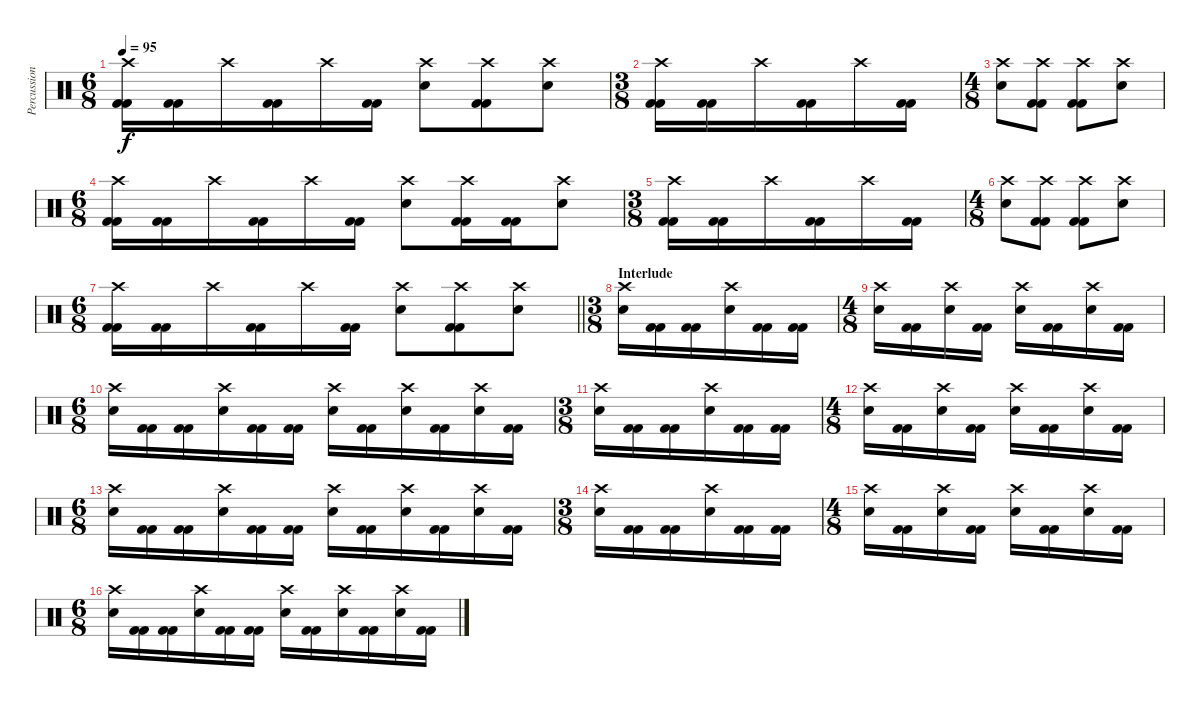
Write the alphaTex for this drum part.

\track ("Percussion" "Percussion") {instrument percussion}
\staff {score}
\articulation defaults
\ts (6 8)
\tempo 95
\clef neutral
\ks c
("Crash high (hit)" "Kick (hit) 2" "Kick (hit) 2").16{dy f} ("Kick (hit) 2" "Kick (hit) 2").16 "Crash high (hit)".16 ("Kick (hit) 2" "Kick (hit) 2").16 "Crash high (hit)".16 ("Kick (hit) 2" "Kick (hit) 2").16 ("Crash high (hit)" "Electric Snare (hit)").8 ("Crash high (hit)" "Kick (hit) 2" "Kick (hit) 2").8 ("Crash high (hit)" "Electric Snare (hit)").8 |
\ts (3 8)
("Crash high (hit)" "Kick (hit) 2" "Kick (hit) 2").16 ("Kick (hit) 2" "Kick (hit) 2").16 "Crash high (hit)".16 ("Kick (hit) 2" "Kick (hit) 2").16 "Crash high (hit)".16 ("Kick (hit) 2" "Kick (hit) 2").16 |
\ts (4 8)
("Crash high (hit)" "Electric Snare (hit)").8 ("Crash high (hit)" "Kick (hit) 2" "Kick (hit) 2").8 ("Crash high (hit)" "Kick (hit) 2" "Kick (hit) 2").8 ("Crash high (hit)" "Electric Snare (hit)").8 |
\ts (6 8)
("Crash high (hit)" "Kick (hit) 2" "Kick (hit) 2").16 ("Kick (hit) 2" "Kick (hit) 2").16 "Crash high (hit)".16 ("Kick (hit) 2" "Kick (hit) 2").16 "Crash high (hit)".16 ("Kick (hit) 2" "Kick (hit) 2").16 ("Crash high (hit)" "Electric Snare (hit)").8 ("Crash high (hit)" "Kick (hit) 2" "Kick (hit) 2").16 ("Kick (hit) 2" "Kick (hit) 2").16 ("Crash high (hit)" "Electric Snare (hit)").8 |
\ts (3 8)
("Crash high (hit)" "Kick (hit) 2" "Kick (hit) 2").16 ("Kick (hit) 2" "Kick (hit) 2").16 "Crash high (hit)".16 ("Kick (hit) 2" "Kick (hit) 2").16 "Crash high (hit)".16 ("Kick (hit) 2" "Kick (hit) 2").16 |
\ts (4 8)
("Crash high (hit)" "Electric Snare (hit)").8 ("Crash high (hit)" "Kick (hit) 2" "Kick (hit) 2").8 ("Crash high (hit)" "Kick (hit) 2" "Kick (hit) 2").8 ("Crash high (hit)" "Electric Snare (hit)").8 |
\ts (6 8)
\barLineRight lightlight
("Crash high (hit)" "Kick (hit) 2" "Kick (hit) 2").16 ("Kick (hit) 2" "Kick (hit) 2").16 "Crash high (hit)".16 ("Kick (hit) 2" "Kick (hit) 2").16 "Crash high (hit)".16 ("Kick (hit) 2" "Kick (hit) 2").16 ("Crash high (hit)" "Electric Snare (hit)").8 ("Crash high (hit)" "Kick (hit) 2" "Kick (hit) 2").8 ("Crash high (hit)" "Electric Snare (hit)").8 |
\ts (3 8)
\section ("" "Interlude")
("Crash high (hit)" "Electric Snare (hit)").16 ("Kick (hit) 2" "Kick (hit) 2").16 ("Kick (hit) 2" "Kick (hit) 2").16 ("Crash high (hit)" "Electric Snare (hit)").16 ("Kick (hit) 2" "Kick (hit) 2").16 ("Kick (hit) 2" "Kick (hit) 2").16 |
\ts (4 8)
("Crash high (hit)" "Electric Snare (hit)").16 ("Kick (hit) 2" "Kick (hit) 2").16 ("Crash high (hit)" "Electric Snare (hit)").16 ("Kick (hit) 2" "Kick (hit) 2").16 ("Crash high (hit)" "Electric Snare (hit)").16 ("Kick (hit) 2" "Kick (hit) 2").16 ("Crash high (hit)" "Electric Snare (hit)").16 ("Kick (hit) 2" "Kick (hit) 2").16 |
\ts (6 8)
("Crash high (hit)" "Electric Snare (hit)").16 ("Kick (hit) 2" "Kick (hit) 2").16 ("Kick (hit) 2" "Kick (hit) 2").16 ("Crash high (hit)" "Electric Snare (hit)").16 ("Kick (hit) 2" "Kick (hit) 2").16 ("Kick (hit) 2" "Kick (hit) 2").16 ("Crash high (hit)" "Electric Snare (hit)").16 ("Kick (hit) 2" "Kick (hit) 2").16 ("Crash high (hit)" "Electric Snare (hit)").16 ("Kick (hit) 2" "Kick (hit) 2").16 ("Crash high (hit)" "Electric Snare (hit)").16 ("Kick (hit) 2" "Kick (hit) 2").16 |
\ts (3 8)
("Crash high (hit)" "Electric Snare (hit)").16 ("Kick (hit) 2" "Kick (hit) 2").16 ("Kick (hit) 2" "Kick (hit) 2").16 ("Crash high (hit)" "Electric Snare (hit)").16 ("Kick (hit) 2" "Kick (hit) 2").16 ("Kick (hit) 2" "Kick (hit) 2").16 |
\ts (4 8)
("Crash high (hit)" "Electric Snare (hit)").16 ("Kick (hit) 2" "Kick (hit) 2").16 ("Crash high (hit)" "Electric Snare (hit)").16 ("Kick (hit) 2" "Kick (hit) 2").16 ("Crash high (hit)" "Electric Snare (hit)").16 ("Kick (hit) 2" "Kick (hit) 2").16 ("Crash high (hit)" "Electric Snare (hit)").16 ("Kick (hit) 2" "Kick (hit) 2").16 |
\ts (6 8)
("Crash high (hit)" "Electric Snare (hit)").16 ("Kick (hit) 2" "Kick (hit) 2").16 ("Kick (hit) 2" "Kick (hit) 2").16 ("Crash high (hit)" "Electric Snare (hit)").16 ("Kick (hit) 2" "Kick (hit) 2").16 ("Kick (hit) 2" "Kick (hit) 2").16 ("Crash high (hit)" "Electric Snare (hit)").16 ("Kick (hit) 2" "Kick (hit) 2").16 ("Crash high (hit)" "Electric Snare (hit)").16 ("Kick (hit) 2" "Kick (hit) 2").16 ("Crash high (hit)" "Electric Snare (hit)").16 ("Kick (hit) 2" "Kick (hit) 2").16 |
\ts (3 8)
("Crash high (hit)" "Electric Snare (hit)").16 ("Kick (hit) 2" "Kick (hit) 2").16 ("Kick (hit) 2" "Kick (hit) 2").16 ("Crash high (hit)" "Electric Snare (hit)").16 ("Kick (hit) 2" "Kick (hit) 2").16 ("Kick (hit) 2" "Kick (hit) 2").16 |
\ts (4 8)
("Crash high (hit)" "Electric Snare (hit)").16 ("Kick (hit) 2" "Kick (hit) 2").16 ("Crash high (hit)" "Electric Snare (hit)").16 ("Kick (hit) 2" "Kick (hit) 2").16 ("Crash high (hit)" "Electric Snare (hit)").16 ("Kick (hit) 2" "Kick (hit) 2").16 ("Crash high (hit)" "Electric Snare (hit)").16 ("Kick (hit) 2" "Kick (hit) 2").16 |
\ts (6 8)
("Crash high (hit)" "Electric Snare (hit)").16 ("Kick (hit) 2" "Kick (hit) 2").16 ("Kick (hit) 2" "Kick (hit) 2").16 ("Crash high (hit)" "Electric Snare (hit)").16 ("Kick (hit) 2" "Kick (hit) 2").16 ("Kick (hit) 2" "Kick (hit) 2").16 ("Crash high (hit)" "Electric Snare (hit)").16 ("Kick (hit) 2" "Kick (hit) 2").16 ("Crash high (hit)" "Electric Snare (hit)").16 ("Kick (hit) 2" "Kick (hit) 2").16 ("Crash high (hit)" "Electric Snare (hit)").16 ("Kick (hit) 2" "Kick (hit) 2").16
